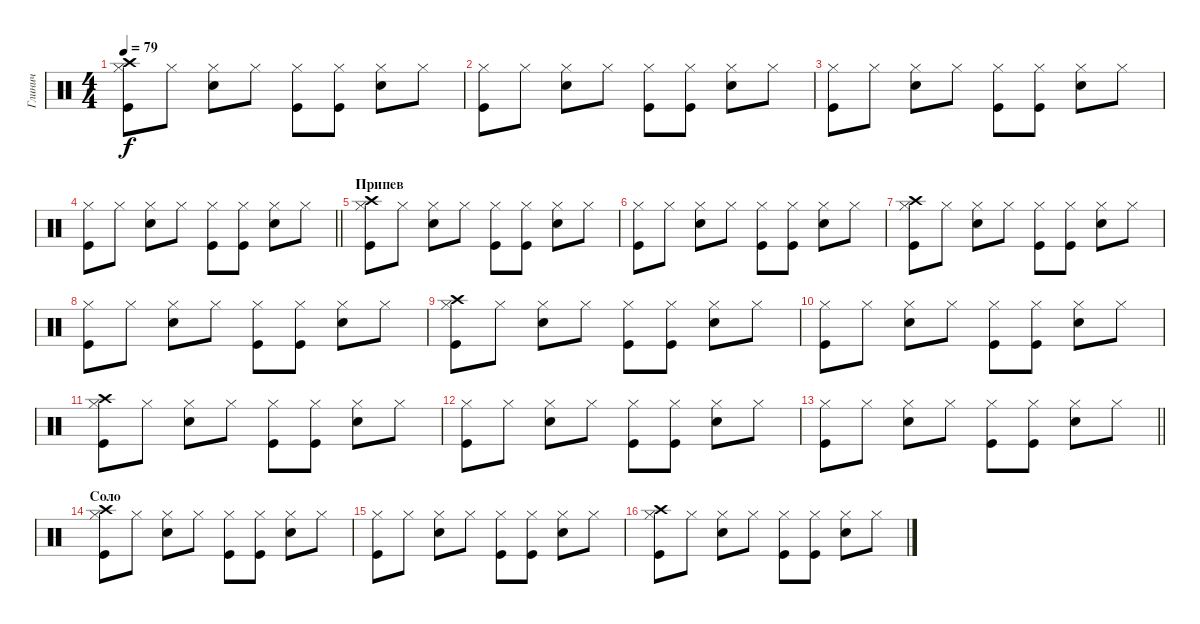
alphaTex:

\track ("Глинич" "Глинич") {instrument percussion}
\staff {score}
\articulation defaults
\ts (4 4)
\tempo 79
\clef neutral
\ks c
("Hi-Hat (closed)" "Crash high (hit)" "Kick (hit)").8{dy f} "Hi-Hat (closed)".8 ("Hi-Hat (closed)" "Snare (hit) 2").8 "Hi-Hat (closed)".8 ("Hi-Hat (closed)" "Kick (hit)").8 ("Hi-Hat (closed)" "Kick (hit)").8 ("Hi-Hat (closed)" "Snare (hit) 2").8 "Hi-Hat (closed)".8 |
("Hi-Hat (closed)" "Kick (hit)").8 "Hi-Hat (closed)".8 ("Hi-Hat (closed)" "Snare (hit) 2").8 "Hi-Hat (closed)".8 ("Hi-Hat (closed)" "Kick (hit)").8 ("Hi-Hat (closed)" "Kick (hit)").8 ("Hi-Hat (closed)" "Snare (hit) 2").8 "Hi-Hat (closed)".8 |
("Hi-Hat (closed)" "Kick (hit)").8 "Hi-Hat (closed)".8 ("Hi-Hat (closed)" "Snare (hit) 2").8 "Hi-Hat (closed)".8 ("Hi-Hat (closed)" "Kick (hit)").8 ("Hi-Hat (closed)" "Kick (hit)").8 ("Hi-Hat (closed)" "Snare (hit) 2").8 "Hi-Hat (closed)".8 |
\barLineRight lightlight
("Hi-Hat (closed)" "Kick (hit)").8 "Hi-Hat (closed)".8 ("Hi-Hat (closed)" "Snare (hit) 2").8 "Hi-Hat (closed)".8 ("Hi-Hat (closed)" "Kick (hit)").8 ("Hi-Hat (closed)" "Kick (hit)").8 ("Hi-Hat (closed)" "Snare (hit) 2").8 "Hi-Hat (closed)".8 |
\section ("" "Припев")
("Hi-Hat (closed)" "Crash high (hit)" "Kick (hit)").8 "Hi-Hat (closed)".8 ("Hi-Hat (closed)" "Snare (hit) 2").8 "Hi-Hat (closed)".8 ("Hi-Hat (closed)" "Kick (hit)").8 ("Hi-Hat (closed)" "Kick (hit)").8 ("Hi-Hat (closed)" "Snare (hit) 2").8 "Hi-Hat (closed)".8 |
("Hi-Hat (closed)" "Kick (hit)").8 "Hi-Hat (closed)".8 ("Hi-Hat (closed)" "Snare (hit) 2").8 "Hi-Hat (closed)".8 ("Hi-Hat (closed)" "Kick (hit)").8 ("Hi-Hat (closed)" "Kick (hit)").8 ("Hi-Hat (closed)" "Snare (hit) 2").8 "Hi-Hat (closed)".8 |
("Hi-Hat (closed)" "Crash high (hit)" "Kick (hit)").8 "Hi-Hat (closed)".8 ("Hi-Hat (closed)" "Snare (hit) 2").8 "Hi-Hat (closed)".8 ("Hi-Hat (closed)" "Kick (hit)").8 ("Hi-Hat (closed)" "Kick (hit)").8 ("Hi-Hat (closed)" "Snare (hit) 2").8 "Hi-Hat (closed)".8 |
("Hi-Hat (closed)" "Kick (hit)").8 "Hi-Hat (closed)".8 ("Hi-Hat (closed)" "Snare (hit) 2").8 "Hi-Hat (closed)".8 ("Hi-Hat (closed)" "Kick (hit)").8 ("Hi-Hat (closed)" "Kick (hit)").8 ("Hi-Hat (closed)" "Snare (hit) 2").8 "Hi-Hat (closed)".8 |
("Hi-Hat (closed)" "Crash high (hit)" "Kick (hit)").8 "Hi-Hat (closed)".8 ("Hi-Hat (closed)" "Snare (hit) 2").8 "Hi-Hat (closed)".8 ("Hi-Hat (closed)" "Kick (hit)").8 ("Hi-Hat (closed)" "Kick (hit)").8 ("Hi-Hat (closed)" "Snare (hit) 2").8 "Hi-Hat (closed)".8 |
("Hi-Hat (closed)" "Kick (hit)").8 "Hi-Hat (closed)".8 ("Hi-Hat (closed)" "Snare (hit) 2").8 "Hi-Hat (closed)".8 ("Hi-Hat (closed)" "Kick (hit)").8 ("Hi-Hat (closed)" "Kick (hit)").8 ("Hi-Hat (closed)" "Snare (hit) 2").8 "Hi-Hat (closed)".8 |
("Hi-Hat (closed)" "Crash high (hit)" "Kick (hit)").8 "Hi-Hat (closed)".8 ("Hi-Hat (closed)" "Snare (hit) 2").8 "Hi-Hat (closed)".8 ("Hi-Hat (closed)" "Kick (hit)").8 ("Hi-Hat (closed)" "Kick (hit)").8 ("Hi-Hat (closed)" "Snare (hit) 2").8 "Hi-Hat (closed)".8 |
("Hi-Hat (closed)" "Kick (hit)").8 "Hi-Hat (closed)".8 ("Hi-Hat (closed)" "Snare (hit) 2").8 "Hi-Hat (closed)".8 ("Hi-Hat (closed)" "Kick (hit)").8 ("Hi-Hat (closed)" "Kick (hit)").8 ("Hi-Hat (closed)" "Snare (hit) 2").8 "Hi-Hat (closed)".8 |
\barLineRight lightlight
("Hi-Hat (closed)" "Kick (hit)").8 "Hi-Hat (closed)".8 ("Hi-Hat (closed)" "Snare (hit) 2").8 "Hi-Hat (closed)".8 ("Hi-Hat (closed)" "Kick (hit)").8 ("Hi-Hat (closed)" "Kick (hit)").8 ("Hi-Hat (closed)" "Snare (hit) 2").8 "Hi-Hat (closed)".8 |
\section ("" "Соло")
("Hi-Hat (closed)" "Crash high (hit)" "Kick (hit)").8 "Hi-Hat (closed)".8 ("Hi-Hat (closed)" "Snare (hit) 2").8 "Hi-Hat (closed)".8 ("Hi-Hat (closed)" "Kick (hit)").8 ("Hi-Hat (closed)" "Kick (hit)").8 ("Hi-Hat (closed)" "Snare (hit) 2").8 "Hi-Hat (closed)".8 |
("Hi-Hat (closed)" "Kick (hit)").8 "Hi-Hat (closed)".8 ("Hi-Hat (closed)" "Snare (hit) 2").8 "Hi-Hat (closed)".8 ("Hi-Hat (closed)" "Kick (hit)").8 ("Hi-Hat (closed)" "Kick (hit)").8 ("Hi-Hat (closed)" "Snare (hit) 2").8 "Hi-Hat (closed)".8 |
("Hi-Hat (closed)" "Crash high (hit)" "Kick (hit)").8 "Hi-Hat (closed)".8 ("Hi-Hat (closed)" "Snare (hit) 2").8 "Hi-Hat (closed)".8 ("Hi-Hat (closed)" "Kick (hit)").8 ("Hi-Hat (closed)" "Kick (hit)").8 ("Hi-Hat (closed)" "Snare (hit) 2").8 "Hi-Hat (closed)".8
